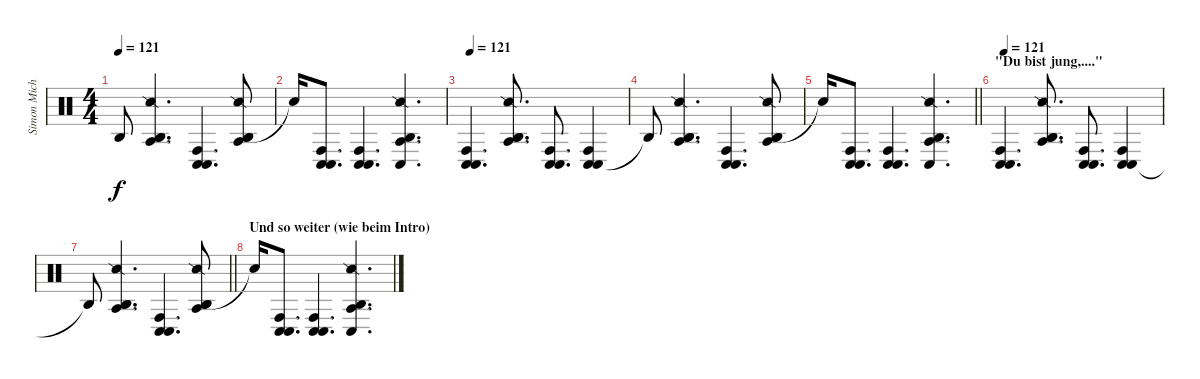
\track ("Simon Michael" "Simon Mich") {instrument percussion}
\staff {score}
\articulation defaults
\ts (4 4)
\tempo 121
\clef neutral
\ks c "Agogo high (hit)"{t}.8{dy f}
("Agogo high (hit)" "Snare (side stick) 2" "Agogo tow (hit)" "Agogo high (hit)").4{d} ("Conga low (hit)" "Conga high (hit)" "Conga low (hit)").4{d} ("Agogo high (hit)" "Snare (side stick) 2" "Agogo tow (hit)" "Agogo high (hit)").8 |
"Snare (hit)"{t}.16 ("Conga low (hit)" "Conga high (hit)" "Conga low (hit)").8{d} ("Conga low (hit)" "Conga high (hit)" "Conga low (hit)").4{d} ("Agogo high (hit)" "Snare (side stick) 2" "Agogo tow (hit)" "Conga low (hit)").4{d} |
\tempo 121
("Conga low (hit)" "Conga high (hit)" "Conga low (hit)").4{d} ("Agogo high (hit)" "Snare (side stick) 2" "Agogo tow (hit)" "Agogo high (hit)").8{d} ("Conga low (hit)" "Conga high (hit)" "Conga low (hit)").8{d} ("Conga low (hit)" "Conga high (hit)" "Conga low (hit)").4 |
"Agogo high (hit)"{t}.8 ("Agogo high (hit)" "Snare (side stick) 2" "Agogo tow (hit)" "Agogo high (hit)").4{d} ("Conga low (hit)" "Conga high (hit)" "Conga low (hit)").4{d} ("Agogo high (hit)" "Snare (side stick) 2" "Agogo tow (hit)" "Agogo high (hit)").8 |
\barLineRight lightlight "Snare (hit)"{t}.16
("Conga low (hit)" "Conga high (hit)" "Conga low (hit)").8{d} ("Conga low (hit)" "Conga high (hit)" "Conga low (hit)").4{d} ("Agogo high (hit)" "Snare (side stick) 2" "Agogo tow (hit)" "Conga low (hit)").4{d} |
\section ("" "\"Du bist jung,....\"")
\tempo 121
("Conga low (hit)" "Conga high (hit)" "Conga low (hit)").4{d} ("Agogo high (hit)" "Snare (side stick) 2" "Agogo tow (hit)" "Agogo high (hit)").8{d} ("Conga low (hit)" "Conga high (hit)" "Conga low (hit)").8{d} ("Conga low (hit)" "Conga high (hit)" "Conga low (hit)").4 |
\barLineRight lightlight "Agogo high (hit)"{t}.8
("Agogo high (hit)" "Snare (side stick) 2" "Agogo tow (hit)" "Agogo high (hit)").4{d} ("Conga low (hit)" "Conga high (hit)" "Conga low (hit)").4{d} ("Agogo high (hit)" "Snare (side stick) 2" "Agogo tow (hit)" "Agogo high (hit)").8 |
\section ("" "Und so weiter (wie beim Intro)")
"Snare (hit)"{t}.16 ("Conga low (hit)" "Conga high (hit)" "Conga low (hit)").8{d} ("Conga low (hit)" "Conga high (hit)" "Conga low (hit)").4{d} ("Agogo high (hit)" "Snare (side stick) 2" "Agogo tow (hit)" "Conga low (hit)").4{d}
